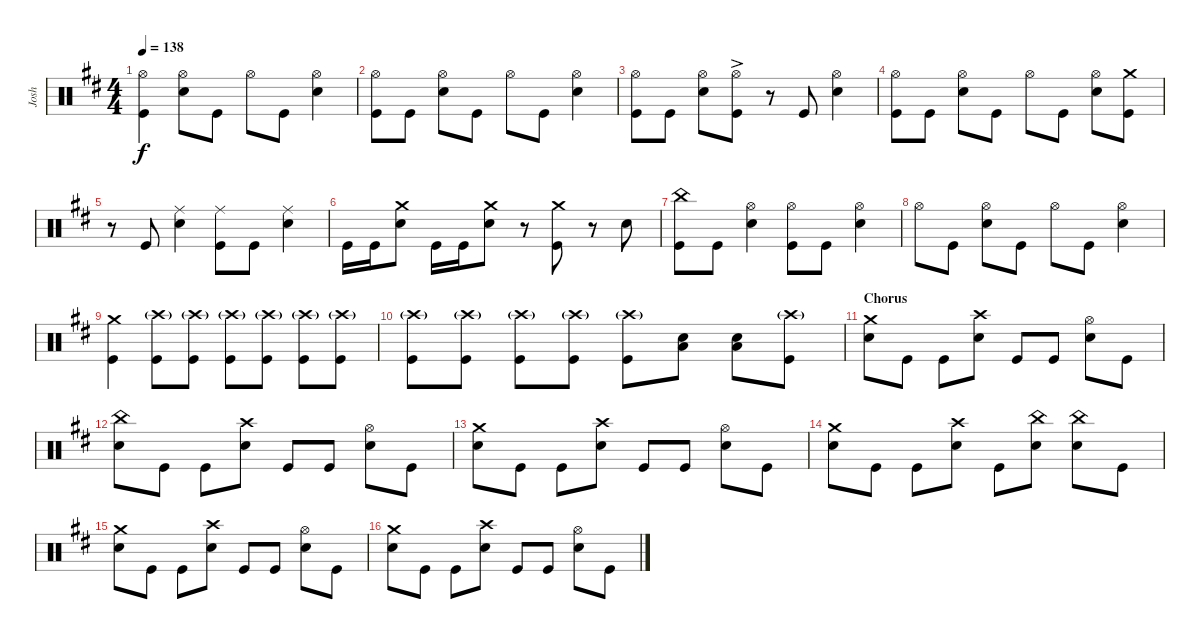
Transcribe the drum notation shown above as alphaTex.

\track ("Josh" "Josh") {instrument percussion}
\staff {score}
\articulation defaults
\ts (4 4)
\tempo 138
\clef neutral
\ks d
("Hi-Hat (open)" "Kick (hit)").4{dy f} ("Snare (hit) 2" "Hi-Hat (open)").8 "Kick (hit)".8 "Hi-Hat (open)".8 "Kick (hit)".8 ("Snare (hit) 2" "Hi-Hat (open)").4 |
("Kick (hit)" "Hi-Hat (open)").8 "Kick (hit)".8 ("Snare (hit) 2" "Hi-Hat (open)").8 "Kick (hit)".8 "Hi-Hat (open)".8 "Kick (hit)".8 ("Snare (hit) 2" "Hi-Hat (open)").4 |
("Kick (hit)" "Hi-Hat (open)").8 "Kick (hit)".8 ("Snare (hit) 2" "Hi-Hat (open)").8 ("Kick (hit)" "Hi-Hat (open)"{ac}).8 r.8 "Kick (hit)".8 ("Snare (hit) 2" "Hi-Hat (open)").4 |
("Kick (hit)" "Hi-Hat (open)").8 "Kick (hit)".8 ("Snare (hit) 2" "Hi-Hat (open)").8 "Kick (hit)".8 "Hi-Hat (open)".8 "Kick (hit)".8 ("Snare (hit) 2" "Hi-Hat (open)").8 ("Kick (hit)" "Crash medium (hit)").8 |
r.8 "Kick (hit)".8 ("Snare (hit) 2" "Ride (middle)").4 ("Kick (hit)" "Ride (middle)").8 "Kick (hit)".8 ("Snare (hit) 2" "Ride (middle)").4 |
"Kick (hit)".16 "Kick (hit)".16 ("Snare (hit) 2" "Crash medium (hit)").8 "Kick (hit)".16 "Kick (hit)".16 ("Snare (hit) 2" "Crash medium (hit)").8 r.8 ("Kick (hit)" "Crash medium (hit)").8 r.8 "Snare (hit) 2".8 |
("China (hit)" "Kick (hit)").8 "Kick (hit)".8 ("Snare (hit) 2" "Hi-Hat (open)").4 ("Kick (hit)" "Hi-Hat (open)").8 "Kick (hit)".8 ("Snare (hit) 2" "Hi-Hat (open)").4 |
"Hi-Hat (open)".8 "Kick (hit)".8 ("Snare (hit) 2" "Hi-Hat (open)").8 "Kick (hit)".8 "Hi-Hat (open)".8 "Kick (hit)".8 ("Snare (hit) 2" "Hi-Hat (open)").4 |
("Kick (hit)" "Crash medium (hit)").4 ("Kick (hit)" "Crash high (hit)"{g}).8 ("Kick (hit)" "Crash high (hit)"{g}).8 ("Kick (hit)" "Crash high (hit)"{g}).8 ("Kick (hit)" "Crash high (hit)"{g}).8 ("Kick (hit)" "Crash high (hit)"{g}).8 ("Kick (hit)" "Crash high (hit)"{g}).8 |
("Kick (hit)" "Crash high (hit)"{g}).8 ("Kick (hit)" "Crash high (hit)"{g}).8 ("Kick (hit)" "Crash high (hit)"{g}).8 ("Kick (hit)" "Crash high (hit)"{g}).8 ("Kick (hit)" "Crash high (hit)"{g}).8 ("Snare (hit) 2" "Low Floor Tom (hit)").8 ("Snare (hit) 2" "Low Floor Tom (hit)").8 ("Kick (hit)" "Crash high (hit)"{g}).8 |
\section ("" "Chorus")
("Snare (hit) 2" "Crash medium (hit)").8 "Kick (hit)".8 "Kick (hit)".8 ("Snare (hit) 2" "Crash high (hit)").8 "Kick (hit)".8 "Kick (hit)".8 ("Snare (hit) 2" "Hi-Hat (open)").8 "Kick (hit)".8 |
("Snare (hit) 2" "China (hit)").8 "Kick (hit)".8 "Kick (hit)".8 ("Snare (hit) 2" "Crash high (hit)").8 "Kick (hit)".8 "Kick (hit)".8 ("Snare (hit) 2" "Hi-Hat (open)").8 "Kick (hit)".8 |
("Snare (hit) 2" "Crash medium (hit)").8 "Kick (hit)".8 "Kick (hit)".8 ("Snare (hit) 2" "Crash high (hit)").8 "Kick (hit)".8 "Kick (hit)".8 ("Snare (hit) 2" "Hi-Hat (open)").8 "Kick (hit)".8 |
("Snare (hit) 2" "Crash medium (hit)").8 "Kick (hit)".8 "Kick (hit)".8 ("Snare (hit) 2" "Crash high (hit)").8 "Kick (hit)".8 ("Snare (hit) 2" "China (hit)").8 ("Snare (hit) 2" "China (hit)").8 "Kick (hit)".8 |
("Snare (hit) 2" "Crash medium (hit)").8 "Kick (hit)".8 "Kick (hit)".8 ("Snare (hit) 2" "Crash high (hit)").8 "Kick (hit)".8 "Kick (hit)".8 ("Snare (hit) 2" "Hi-Hat (open)").8 "Kick (hit)".8 |
("Snare (hit) 2" "Crash medium (hit)").8 "Kick (hit)".8 "Kick (hit)".8 ("Snare (hit) 2" "Crash high (hit)").8 "Kick (hit)".8 "Kick (hit)".8 ("Snare (hit) 2" "Hi-Hat (open)").8 "Kick (hit)".8
